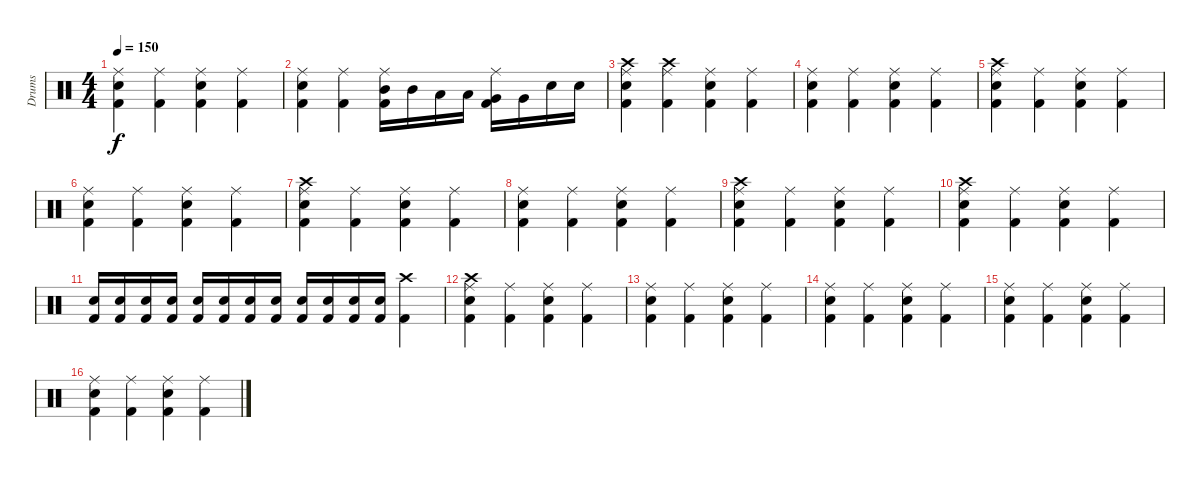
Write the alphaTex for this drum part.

\track ("Drums" "Drums") {instrument percussion}
\staff {score}
\articulation defaults
\ts (4 4)
\tempo 150
\clef neutral
\ks c
("Ride (middle)" "Electric Snare (hit)" "Kick (hit) 2").4{dy f} ("Ride (middle)" "Kick (hit) 2").4 ("Ride (middle)" "Electric Snare (hit)" "Kick (hit) 2").4 ("Ride (middle)" "Kick (hit) 2").4 |
("Ride (middle)" "Electric Snare (hit)" "Kick (hit) 2").4 ("Ride (middle)" "Kick (hit) 2").4 ("Ride (middle)" "Mid Tom (hit)" "Kick (hit) 2").16 "Mid Tom (hit)".16 "Low Tom (hit)".16 "Low Tom (hit)".16 ("Ride (middle)" "Very Low Tom (hit)" "Kick (hit) 2").16 "Very Low Tom (hit)".16 "Snare (hit) 2".16 "Snare (hit) 2".16 |
("Crash high (hit)" "Ride (middle)" "Electric Snare (hit)" "Kick (hit) 2").4 ("Crash high (hit)" "Ride (middle)" "Kick (hit) 2").4 ("Ride (middle)" "Electric Snare (hit)" "Kick (hit) 2").4 ("Ride (middle)" "Kick (hit) 2").4 |
("Ride (middle)" "Electric Snare (hit)" "Kick (hit) 2").4 ("Ride (middle)" "Kick (hit) 2").4 ("Ride (middle)" "Electric Snare (hit)" "Kick (hit) 2").4 ("Ride (middle)" "Kick (hit) 2").4 |
("Crash high (hit)" "Ride (middle)" "Electric Snare (hit)" "Kick (hit) 2").4 ("Ride (middle)" "Kick (hit) 2").4 ("Ride (middle)" "Electric Snare (hit)" "Kick (hit) 2").4 ("Ride (middle)" "Kick (hit) 2").4 |
("Ride (middle)" "Electric Snare (hit)" "Kick (hit) 2").4 ("Ride (middle)" "Kick (hit) 2").4 ("Ride (middle)" "Electric Snare (hit)" "Kick (hit) 2").4 ("Ride (middle)" "Kick (hit) 2").4 |
("Crash high (hit)" "Ride (middle)" "Electric Snare (hit)" "Kick (hit) 2").4 ("Ride (middle)" "Kick (hit) 2").4 ("Ride (middle)" "Electric Snare (hit)" "Kick (hit) 2").4 ("Ride (middle)" "Kick (hit) 2").4 |
("Ride (middle)" "Electric Snare (hit)" "Kick (hit) 2").4 ("Ride (middle)" "Kick (hit) 2").4 ("Ride (middle)" "Electric Snare (hit)" "Kick (hit) 2").4 ("Ride (middle)" "Kick (hit) 2").4 |
("Crash high (hit)" "Ride (middle)" "Electric Snare (hit)" "Kick (hit) 2").4 ("Ride (middle)" "Kick (hit) 2").4 ("Ride (middle)" "Electric Snare (hit)" "Kick (hit) 2").4 ("Ride (middle)" "Kick (hit) 2").4 |
("Crash high (hit)" "Ride (middle)" "Electric Snare (hit)" "Kick (hit) 2").4 ("Ride (middle)" "Kick (hit) 2").4 ("Ride (middle)" "Electric Snare (hit)" "Kick (hit) 2").4 ("Ride (middle)" "Kick (hit) 2").4 |
("Electric Snare (hit)" "Kick (hit) 2").16 ("Electric Snare (hit)" "Kick (hit) 2").16 ("Electric Snare (hit)" "Kick (hit) 2").16 ("Electric Snare (hit)" "Kick (hit) 2").16 ("Electric Snare (hit)" "Kick (hit) 2").16 ("Electric Snare (hit)" "Kick (hit) 2").16 ("Electric Snare (hit)" "Kick (hit) 2").16 ("Electric Snare (hit)" "Kick (hit) 2").16 ("Electric Snare (hit)" "Kick (hit) 2").16 ("Electric Snare (hit)" "Kick (hit) 2").16 ("Electric Snare (hit)" "Kick (hit) 2").16 ("Electric Snare (hit)" "Kick (hit) 2").16 ("Crash high (hit)" "Kick (hit) 2").4 |
("Crash high (hit)" "Ride (middle)" "Electric Snare (hit)" "Kick (hit) 2").4 ("Ride (middle)" "Kick (hit) 2").4 ("Ride (middle)" "Electric Snare (hit)" "Kick (hit) 2").4 ("Ride (middle)" "Kick (hit) 2").4 |
("Ride (middle)" "Electric Snare (hit)" "Kick (hit) 2").4 ("Ride (middle)" "Kick (hit) 2").4 ("Ride (middle)" "Electric Snare (hit)" "Kick (hit) 2").4 ("Ride (middle)" "Kick (hit) 2").4 |
("Ride (middle)" "Electric Snare (hit)" "Kick (hit) 2").4 ("Ride (middle)" "Kick (hit) 2").4 ("Ride (middle)" "Electric Snare (hit)" "Kick (hit) 2").4 ("Ride (middle)" "Kick (hit) 2").4 |
("Ride (middle)" "Electric Snare (hit)" "Kick (hit) 2").4 ("Ride (middle)" "Kick (hit) 2").4 ("Ride (middle)" "Electric Snare (hit)" "Kick (hit) 2").4 ("Ride (middle)" "Kick (hit) 2").4 |
("Ride (middle)" "Electric Snare (hit)" "Kick (hit) 2").4 ("Ride (middle)" "Kick (hit) 2").4 ("Ride (middle)" "Electric Snare (hit)" "Kick (hit) 2").4 ("Ride (middle)" "Kick (hit) 2").4
